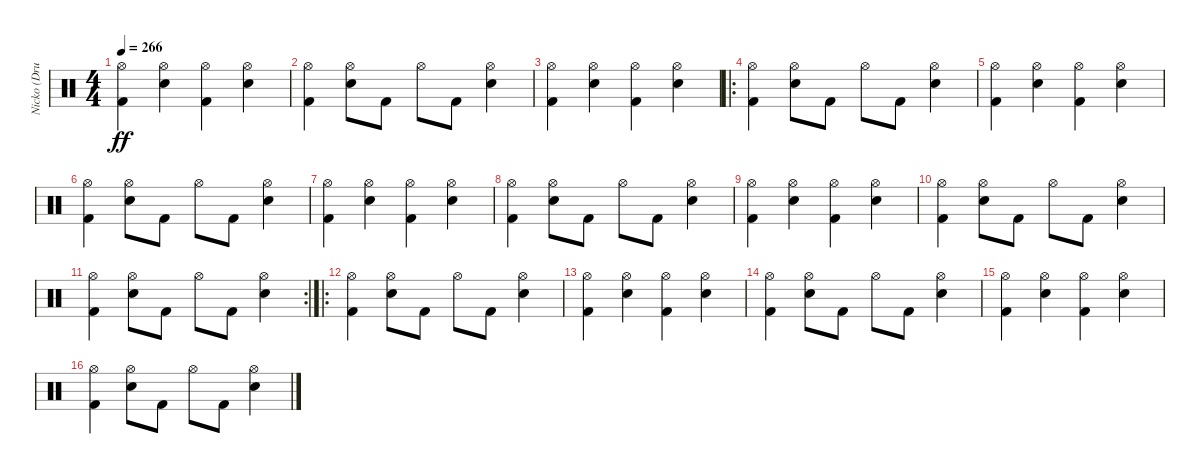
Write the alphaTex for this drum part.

\track ("Nicko (Drums)" "Nicko (Dru") {instrument percussion}
\staff {score}
\articulation defaults
\ts (4 4)
\tempo 266
\clef neutral
\ks c
("Kick (hit) 2" "Hi-Hat (open)").4{dy ff} ("Snare (hit) 2" "Hi-Hat (open)").4 ("Kick (hit) 2" "Hi-Hat (open)").4 ("Snare (hit) 2" "Hi-Hat (open)").4 |
("Kick (hit) 2" "Hi-Hat (open)").4 ("Snare (hit) 2" "Hi-Hat (open)").8 "Kick (hit) 2".8 "Hi-Hat (open)".8 "Kick (hit) 2".8 ("Snare (hit) 2" "Hi-Hat (open)").4 |
("Kick (hit) 2" "Hi-Hat (open)").4 ("Snare (hit) 2" "Hi-Hat (open)").4 ("Kick (hit) 2" "Hi-Hat (open)").4 ("Snare (hit) 2" "Hi-Hat (open)").4 |
\ro
("Kick (hit) 2" "Hi-Hat (open)").4 ("Snare (hit) 2" "Hi-Hat (open)").8 "Kick (hit) 2".8 "Hi-Hat (open)".8 "Kick (hit) 2".8 ("Snare (hit) 2" "Hi-Hat (open)").4 |
("Kick (hit) 2" "Hi-Hat (open)").4 ("Snare (hit) 2" "Hi-Hat (open)").4 ("Kick (hit) 2" "Hi-Hat (open)").4 ("Snare (hit) 2" "Hi-Hat (open)").4 |
("Kick (hit) 2" "Hi-Hat (open)").4 ("Snare (hit) 2" "Hi-Hat (open)").8 "Kick (hit) 2".8 "Hi-Hat (open)".8 "Kick (hit) 2".8 ("Snare (hit) 2" "Hi-Hat (open)").4 |
("Kick (hit) 2" "Hi-Hat (open)").4 ("Snare (hit) 2" "Hi-Hat (open)").4 ("Kick (hit) 2" "Hi-Hat (open)").4 ("Snare (hit) 2" "Hi-Hat (open)").4 |
("Kick (hit) 2" "Hi-Hat (open)").4 ("Snare (hit) 2" "Hi-Hat (open)").8 "Kick (hit) 2".8 "Hi-Hat (open)".8 "Kick (hit) 2".8 ("Snare (hit) 2" "Hi-Hat (open)").4 |
("Kick (hit) 2" "Hi-Hat (open)").4 ("Snare (hit) 2" "Hi-Hat (open)").4 ("Kick (hit) 2" "Hi-Hat (open)").4 ("Snare (hit) 2" "Hi-Hat (open)").4 |
("Kick (hit) 2" "Hi-Hat (open)").4 ("Snare (hit) 2" "Hi-Hat (open)").8 "Kick (hit) 2".8 "Hi-Hat (open)".8 "Kick (hit) 2".8 ("Snare (hit) 2" "Hi-Hat (open)").4 |
\rc 2
("Kick (hit) 2" "Hi-Hat (open)").4 ("Snare (hit) 2" "Hi-Hat (open)").8 "Kick (hit) 2".8 "Hi-Hat (open)".8 "Kick (hit) 2".8 ("Snare (hit) 2" "Hi-Hat (open)").4 |
\ro
("Kick (hit) 2" "Hi-Hat (open)").4 ("Snare (hit) 2" "Hi-Hat (open)").8 "Kick (hit) 2".8 "Hi-Hat (open)".8 "Kick (hit) 2".8 ("Snare (hit) 2" "Hi-Hat (open)").4 |
("Kick (hit) 2" "Hi-Hat (open)").4 ("Snare (hit) 2" "Hi-Hat (open)").4 ("Kick (hit) 2" "Hi-Hat (open)").4 ("Snare (hit) 2" "Hi-Hat (open)").4 |
("Kick (hit) 2" "Hi-Hat (open)").4 ("Snare (hit) 2" "Hi-Hat (open)").8 "Kick (hit) 2".8 "Hi-Hat (open)".8 "Kick (hit) 2".8 ("Snare (hit) 2" "Hi-Hat (open)").4 |
("Kick (hit) 2" "Hi-Hat (open)").4 ("Snare (hit) 2" "Hi-Hat (open)").4 ("Kick (hit) 2" "Hi-Hat (open)").4 ("Snare (hit) 2" "Hi-Hat (open)").4 |
("Kick (hit) 2" "Hi-Hat (open)").4 ("Snare (hit) 2" "Hi-Hat (open)").8 "Kick (hit) 2".8 "Hi-Hat (open)".8 "Kick (hit) 2".8 ("Snare (hit) 2" "Hi-Hat (open)").4
